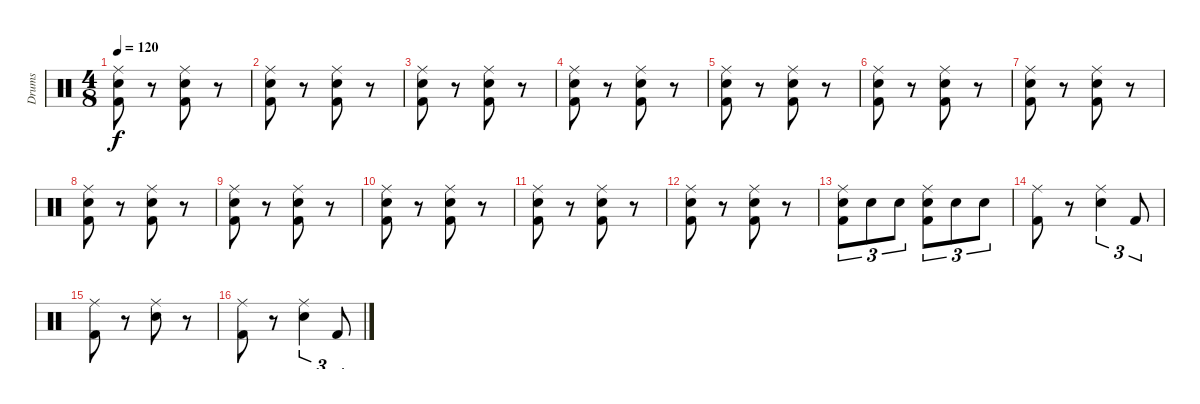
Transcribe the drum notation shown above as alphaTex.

\track ("Drums" "Drums") {instrument percussion}
\staff {score}
\articulation defaults
\ts (4 8)
\tempo 120
\clef neutral
\ks c
("Ride (middle)" "Electric Snare (hit)" "Kick (hit) 2").8{dy f} r.8 ("Ride (middle)" "Electric Snare (hit)" "Kick (hit) 2").8 r.8 |
("Ride (middle)" "Electric Snare (hit)" "Kick (hit) 2").8 r.8 ("Ride (middle)" "Electric Snare (hit)" "Kick (hit) 2").8 r.8 |
("Ride (middle)" "Electric Snare (hit)" "Kick (hit) 2").8 r.8 ("Ride (middle)" "Electric Snare (hit)" "Kick (hit) 2").8 r.8 |
("Ride (middle)" "Electric Snare (hit)" "Kick (hit) 2").8 r.8 ("Ride (middle)" "Electric Snare (hit)" "Kick (hit) 2").8 r.8 |
("Ride (middle)" "Electric Snare (hit)" "Kick (hit) 2").8 r.8 ("Ride (middle)" "Electric Snare (hit)" "Kick (hit) 2").8 r.8 |
("Ride (middle)" "Electric Snare (hit)" "Kick (hit) 2").8 r.8 ("Ride (middle)" "Electric Snare (hit)" "Kick (hit) 2").8 r.8 |
("Ride (middle)" "Electric Snare (hit)" "Kick (hit) 2").8 r.8 ("Ride (middle)" "Electric Snare (hit)" "Kick (hit) 2").8 r.8 |
("Ride (middle)" "Electric Snare (hit)" "Kick (hit) 2").8 r.8 ("Ride (middle)" "Electric Snare (hit)" "Kick (hit) 2").8 r.8 |
("Ride (middle)" "Electric Snare (hit)" "Kick (hit) 2").8 r.8 ("Ride (middle)" "Electric Snare (hit)" "Kick (hit) 2").8 r.8 |
("Ride (middle)" "Electric Snare (hit)" "Kick (hit) 2").8 r.8 ("Ride (middle)" "Electric Snare (hit)" "Kick (hit) 2").8 r.8 |
("Ride (middle)" "Electric Snare (hit)" "Kick (hit) 2").8 r.8 ("Ride (middle)" "Electric Snare (hit)" "Kick (hit) 2").8 r.8 |
("Ride (middle)" "Electric Snare (hit)" "Kick (hit) 2").8 r.8 ("Ride (middle)" "Electric Snare (hit)" "Kick (hit) 2").8 r.8 |
("Ride (middle)" "Electric Snare (hit)" "Kick (hit) 2").8{tu (3 2)} "Electric Snare (hit)".8{tu (3 2)} "Electric Snare (hit)".8{tu (3 2)} ("Ride (middle)" "Electric Snare (hit)" "Kick (hit) 2").8{tu (3 2)} "Electric Snare (hit)".8{tu (3 2)} "Electric Snare (hit)".8{tu (3 2)} |
("Ride (middle)" "Kick (hit) 2").8 r.8 ("Ride (middle)" "Electric Snare (hit)").4{tu (3 2)} "Kick (hit) 2".8{tu (3 2)} |
("Ride (middle)" "Kick (hit) 2").8 r.8 ("Ride (middle)" "Electric Snare (hit)").8 r.8 |
("Ride (middle)" "Kick (hit) 2").8 r.8 ("Ride (middle)" "Electric Snare (hit)").4{tu (3 2)} "Kick (hit) 2".8{tu (3 2)}
